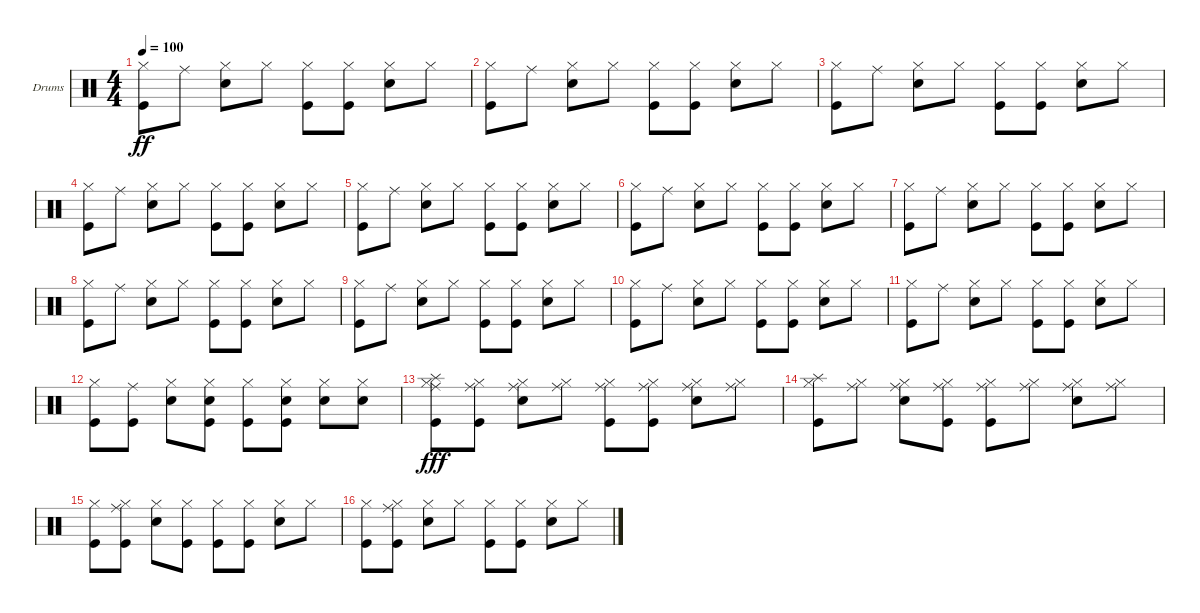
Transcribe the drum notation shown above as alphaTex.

\defaultSystemsLayout 4
\bracketExtendMode groupsimilarinstruments
\firstSystemTrackNameOrientation horizontal
\otherSystemsTrackNameOrientation horizontal
\track ("Drumkit" "Drums") {instrument percussion}
\staff {score}
\articulation defaults
\ts (4 4)
\tempo 100
\clef neutral
\ks c
("Kick (hit)" "Hi-Hat (closed)").8{dy ff} "Ride (middle)".8 ("Snare (hit) 2" "Hi-Hat (closed)").8 "Hi-Hat (closed)".8 ("Kick (hit)" "Hi-Hat (closed)").8 ("Kick (hit)" "Hi-Hat (closed)").8 ("Snare (hit) 2" "Hi-Hat (closed)").8 "Hi-Hat (closed)".8 |
("Kick (hit)" "Hi-Hat (closed)").8 "Ride (middle)".8 ("Snare (hit) 2" "Hi-Hat (closed)").8 "Hi-Hat (closed)".8 ("Kick (hit)" "Hi-Hat (closed)").8 ("Kick (hit)" "Hi-Hat (closed)").8 ("Snare (hit) 2" "Hi-Hat (closed)").8 "Hi-Hat (closed)".8 |
("Kick (hit)" "Hi-Hat (closed)").8 "Ride (middle)".8 ("Snare (hit) 2" "Hi-Hat (closed)").8 "Hi-Hat (closed)".8 ("Kick (hit)" "Hi-Hat (closed)").8 ("Kick (hit)" "Hi-Hat (closed)").8 ("Snare (hit) 2" "Hi-Hat (closed)").8 "Hi-Hat (closed)".8 |
("Kick (hit)" "Hi-Hat (closed)").8 "Ride (middle)".8 ("Snare (hit) 2" "Hi-Hat (closed)").8 "Hi-Hat (closed)".8 ("Kick (hit)" "Hi-Hat (closed)").8 ("Kick (hit)" "Hi-Hat (closed)").8 ("Snare (hit) 2" "Hi-Hat (closed)").8 "Hi-Hat (closed)".8 |
("Kick (hit)" "Hi-Hat (closed)").8 "Ride (middle)".8 ("Snare (hit) 2" "Hi-Hat (closed)").8 "Hi-Hat (closed)".8 ("Kick (hit)" "Hi-Hat (closed)").8 ("Kick (hit)" "Hi-Hat (closed)").8 ("Snare (hit) 2" "Hi-Hat (closed)").8 "Hi-Hat (closed)".8 |
("Kick (hit)" "Hi-Hat (closed)").8 "Ride (middle)".8 ("Snare (hit) 2" "Hi-Hat (closed)").8 "Hi-Hat (closed)".8 ("Kick (hit)" "Hi-Hat (closed)").8 ("Kick (hit)" "Hi-Hat (closed)").8 ("Snare (hit) 2" "Hi-Hat (closed)").8 "Hi-Hat (closed)".8 |
("Kick (hit)" "Hi-Hat (closed)").8 "Ride (middle)".8 ("Snare (hit) 2" "Hi-Hat (closed)").8 "Hi-Hat (closed)".8 ("Kick (hit)" "Hi-Hat (closed)").8 ("Kick (hit)" "Hi-Hat (closed)").8 ("Snare (hit) 2" "Hi-Hat (closed)").8 "Hi-Hat (closed)".8 |
("Kick (hit)" "Hi-Hat (closed)").8 "Ride (middle)".8 ("Snare (hit) 2" "Hi-Hat (closed)").8 "Hi-Hat (closed)".8 ("Kick (hit)" "Hi-Hat (closed)").8 ("Kick (hit)" "Hi-Hat (closed)").8 ("Snare (hit) 2" "Hi-Hat (closed)").8 "Hi-Hat (closed)".8 |
("Kick (hit)" "Hi-Hat (closed)").8 "Ride (middle)".8 ("Snare (hit) 2" "Hi-Hat (closed)").8 "Hi-Hat (closed)".8 ("Kick (hit)" "Hi-Hat (closed)").8 ("Kick (hit)" "Hi-Hat (closed)").8 ("Snare (hit) 2" "Hi-Hat (closed)").8 "Hi-Hat (closed)".8 |
("Kick (hit)" "Hi-Hat (closed)").8 "Ride (middle)".8 ("Snare (hit) 2" "Hi-Hat (closed)").8 "Hi-Hat (closed)".8 ("Kick (hit)" "Hi-Hat (closed)").8 ("Kick (hit)" "Hi-Hat (closed)").8 ("Snare (hit) 2" "Hi-Hat (closed)").8 "Hi-Hat (closed)".8 |
("Kick (hit)" "Hi-Hat (closed)").8 "Ride (middle)".8 ("Snare (hit) 2" "Hi-Hat (closed)").8 "Hi-Hat (closed)".8 ("Kick (hit)" "Hi-Hat (closed)").8 ("Kick (hit)" "Hi-Hat (closed)").8 ("Snare (hit) 2" "Hi-Hat (closed)").8 "Hi-Hat (closed)".8 |
("Kick (hit)" "Hi-Hat (closed)").8 ("Ride (middle)" "Kick (hit)").8 ("Snare (hit) 2" "Hi-Hat (closed)").8 ("Hi-Hat (closed)" "Kick (hit)" "Snare (hit) 2").8 ("Kick (hit)" "Hi-Hat (closed)").8 ("Kick (hit)" "Hi-Hat (closed)" "Snare (hit) 2").8 ("Snare (hit) 2" "Hi-Hat (closed)").8 ("Hi-Hat (closed)" "Snare (hit) 2").8 |
("Ride (middle)" "Kick (hit)" "Hi-Hat (closed)" "Splash (hit)").8{dy fff} ("Ride (middle)" "Hi-Hat (closed)" "Kick (hit)").8 ("Ride (middle)" "Snare (hit) 2" "Hi-Hat (closed)").8 ("Ride (middle)" "Hi-Hat (closed)").8 ("Ride (middle)" "Hi-Hat (closed)" "Kick (hit)").8 ("Ride (middle)" "Kick (hit)" "Hi-Hat (closed)").8 ("Ride (middle)" "Snare (hit) 2" "Hi-Hat (closed)").8 ("Ride (middle)" "Hi-Hat (closed)").8 |
("Splash (hit)" "Hi-Hat (closed)" "Kick (hit)").8 ("Hi-Hat (closed)" "Ride (middle)").8 ("Ride (middle)" "Snare (hit) 2" "Hi-Hat (closed)").8 ("Ride (middle)" "Kick (hit)" "Hi-Hat (closed)").8 ("Ride (middle)" "Kick (hit)" "Hi-Hat (closed)").8 ("Ride (middle)" "Hi-Hat (closed)").8 ("Ride (middle)" "Snare (hit) 2" "Hi-Hat (closed)").8 ("Ride (middle)" "Hi-Hat (closed)").8 |
("Kick (hit)" "Hi-Hat (closed)").8 ("Ride (middle)" "Hi-Hat (closed)" "Kick (hit)").8 ("Snare (hit) 2" "Hi-Hat (closed)").8 ("Kick (hit)" "Hi-Hat (closed)").8 ("Hi-Hat (closed)" "Kick (hit)").8 ("Kick (hit)" "Hi-Hat (closed)").8 ("Snare (hit) 2" "Hi-Hat (closed)").8 "Hi-Hat (closed)".8 |
("Kick (hit)" "Hi-Hat (closed)").8 ("Ride (middle)" "Hi-Hat (closed)" "Kick (hit)").8 ("Snare (hit) 2" "Hi-Hat (closed)").8 "Hi-Hat (closed)".8 ("Kick (hit)" "Hi-Hat (closed)").8 ("Kick (hit)" "Hi-Hat (closed)").8 ("Snare (hit) 2" "Hi-Hat (closed)").8 "Hi-Hat (closed)".8
